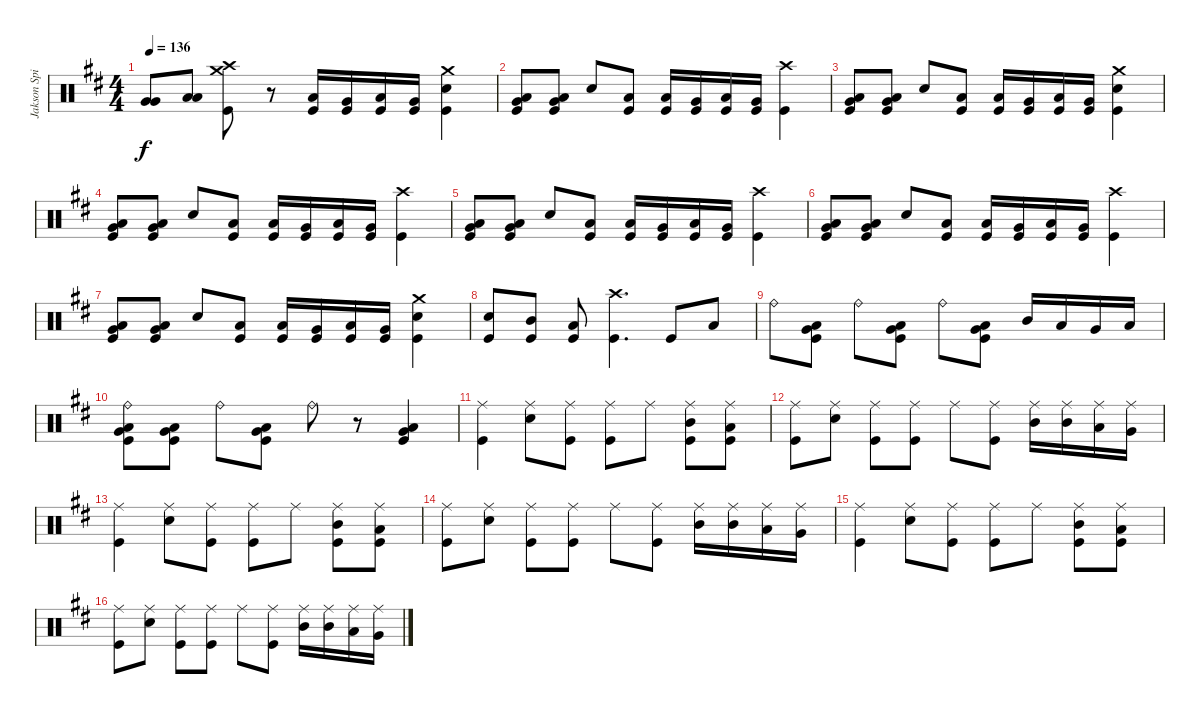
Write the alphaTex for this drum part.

\track ("Jakson Spires Drums" "Jakson Spi") {instrument percussion}
\staff {score}
\articulation defaults
\ts (4 4)
\tempo 136
\clef neutral
\ks d
("Very Low Tom (hit)" "Very Low Tom (hit)").8{dy f} ("Low Tom (hit)" "Low Tom (hit)").8 ("Crash high (hit)" "Crash medium (hit)" "Kick (hit)").8 r.8 ("Low Tom (hit)" "Kick (hit)").16 ("Very Low Tom (hit)" "Kick (hit)").16 ("Low Tom (hit)" "Kick (hit)").16 ("Very Low Tom (hit)" "Kick (hit)").16 ("Crash medium (hit)" "Snare (hit) 2" "Kick (hit)").4 |
("Very Low Tom (hit)" "Low Floor Tom (hit)" "Kick (hit)").8 ("Very Low Tom (hit)" "Low Floor Tom (hit)" "Kick (hit)").8 "Snare (hit) 2".8 ("Low Tom (hit)" "Kick (hit)").8 ("Low Tom (hit)" "Kick (hit)").16 ("Very Low Tom (hit)" "Kick (hit)").16 ("Low Tom (hit)" "Kick (hit)").16 ("Very Low Tom (hit)" "Kick (hit)").16 ("Crash high (hit)" "Kick (hit)").4 |
("Very Low Tom (hit)" "Low Floor Tom (hit)" "Kick (hit)").8 ("Very Low Tom (hit)" "Low Floor Tom (hit)" "Kick (hit)").8 "Snare (hit) 2".8 ("Low Tom (hit)" "Kick (hit)").8 ("Low Tom (hit)" "Kick (hit)").16 ("Very Low Tom (hit)" "Kick (hit)").16 ("Low Tom (hit)" "Kick (hit)").16 ("Very Low Tom (hit)" "Kick (hit)").16 ("Crash medium (hit)" "Snare (hit) 2" "Kick (hit)").4 |
("Very Low Tom (hit)" "Low Floor Tom (hit)" "Kick (hit)").8 ("Very Low Tom (hit)" "Low Floor Tom (hit)" "Kick (hit)").8 "Snare (hit) 2".8 ("Low Tom (hit)" "Kick (hit)").8 ("Low Tom (hit)" "Kick (hit)").16 ("Very Low Tom (hit)" "Kick (hit)").16 ("Low Tom (hit)" "Kick (hit)").16 ("Very Low Tom (hit)" "Kick (hit)").16 ("Crash high (hit)" "Kick (hit)").4 |
("Very Low Tom (hit)" "Low Floor Tom (hit)" "Kick (hit)").8 ("Very Low Tom (hit)" "Low Floor Tom (hit)" "Kick (hit)").8 "Snare (hit) 2".8 ("Low Tom (hit)" "Kick (hit)").8 ("Low Tom (hit)" "Kick (hit)").16 ("Very Low Tom (hit)" "Kick (hit)").16 ("Low Tom (hit)" "Kick (hit)").16 ("Very Low Tom (hit)" "Kick (hit)").16 ("Crash high (hit)" "Kick (hit)").4 |
("Very Low Tom (hit)" "Low Floor Tom (hit)" "Kick (hit)").8 ("Very Low Tom (hit)" "Low Floor Tom (hit)" "Kick (hit)").8 "Snare (hit) 2".8 ("Low Tom (hit)" "Kick (hit)").8 ("Low Tom (hit)" "Kick (hit)").16 ("Very Low Tom (hit)" "Kick (hit)").16 ("Low Tom (hit)" "Kick (hit)").16 ("Very Low Tom (hit)" "Kick (hit)").16 ("Crash high (hit)" "Kick (hit)").4 |
("Very Low Tom (hit)" "Low Floor Tom (hit)" "Kick (hit)").8 ("Very Low Tom (hit)" "Low Floor Tom (hit)" "Kick (hit)").8 "Snare (hit) 2".8 ("Low Tom (hit)" "Kick (hit)").8 ("Low Tom (hit)" "Kick (hit)").16 ("Very Low Tom (hit)" "Kick (hit)").16 ("Low Tom (hit)" "Kick (hit)").16 ("Very Low Tom (hit)" "Kick (hit)").16 ("Crash medium (hit)" "Snare (hit) 2" "Kick (hit)").4 |
("Snare (hit) 2" "Kick (hit)").8 ("Mid Tom (hit)" "Kick (hit)").8 ("Low Tom (hit)" "Kick (hit)").8 ("Crash high (hit)" "Kick (hit)").4{d} "Kick (hit)".8 "Low Tom (hit)".8 |
"Ride (bell)".8 ("Very Low Tom (hit)" "Low Floor Tom (hit)" "Kick (hit)").8 "Ride (bell)".8 ("Very Low Tom (hit)" "Low Floor Tom (hit)" "Kick (hit)").8 "Ride (bell)".8 ("Very Low Tom (hit)" "Low Floor Tom (hit)" "Kick (hit)").8 "Mid Tom (hit)".16 "Low Tom (hit)".16 "Very Low Tom (hit)".16 "Low Floor Tom (hit)".16 |
("Ride (bell)" "Very Low Tom (hit)" "Low Floor Tom (hit)" "Kick (hit)").8 ("Very Low Tom (hit)" "Low Floor Tom (hit)" "Kick (hit)").8 "Ride (bell)".8 ("Very Low Tom (hit)" "Low Floor Tom (hit)" "Kick (hit)").8 "Ride (bell)".8 r.8 ("Very Low Tom (hit)" "Low Floor Tom (hit)" "Kick (hit)").4 |
("Ride (middle)" "Kick (hit)").4 ("Ride (middle)" "Snare (hit) 2").8 ("Ride (middle)" "Kick (hit)").8 ("Ride (middle)" "Kick (hit)").8 "Ride (middle)".8 ("Ride (middle)" "Mid Tom (hit)" "Kick (hit)").8 ("Ride (middle)" "Low Tom (hit)" "Kick (hit)").8 |
("Ride (middle)" "Kick (hit)").8 ("Ride (middle)" "Snare (hit) 2").8 ("Ride (middle)" "Kick (hit)").8 ("Ride (middle)" "Kick (hit)").8 "Ride (middle)".8 ("Ride (middle)" "Kick (hit)").8 ("Ride (middle)" "Mid Tom (hit)").16 ("Ride (middle)" "Mid Tom (hit)").16 ("Ride (middle)" "Low Tom (hit)").16 ("Ride (middle)" "Very Low Tom (hit)").16 |
("Ride (middle)" "Kick (hit)").4 ("Ride (middle)" "Snare (hit) 2").8 ("Ride (middle)" "Kick (hit)").8 ("Ride (middle)" "Kick (hit)").8 "Ride (middle)".8 ("Ride (middle)" "Mid Tom (hit)" "Kick (hit)").8 ("Ride (middle)" "Low Tom (hit)" "Kick (hit)").8 |
("Ride (middle)" "Kick (hit)").8 ("Ride (middle)" "Snare (hit) 2").8 ("Ride (middle)" "Kick (hit)").8 ("Ride (middle)" "Kick (hit)").8 "Ride (middle)".8 ("Ride (middle)" "Kick (hit)").8 ("Ride (middle)" "Mid Tom (hit)").16 ("Ride (middle)" "Mid Tom (hit)").16 ("Ride (middle)" "Low Tom (hit)").16 ("Ride (middle)" "Very Low Tom (hit)").16 |
("Ride (middle)" "Kick (hit)").4 ("Ride (middle)" "Snare (hit) 2").8 ("Ride (middle)" "Kick (hit)").8 ("Ride (middle)" "Kick (hit)").8 "Ride (middle)".8 ("Ride (middle)" "Mid Tom (hit)" "Kick (hit)").8 ("Ride (middle)" "Low Tom (hit)" "Kick (hit)").8 |
("Ride (middle)" "Kick (hit)").8 ("Ride (middle)" "Snare (hit) 2").8 ("Ride (middle)" "Kick (hit)").8 ("Ride (middle)" "Kick (hit)").8 "Ride (middle)".8 ("Ride (middle)" "Kick (hit)").8 ("Ride (middle)" "Mid Tom (hit)").16 ("Ride (middle)" "Mid Tom (hit)").16 ("Ride (middle)" "Low Tom (hit)").16 ("Ride (middle)" "Very Low Tom (hit)").16
